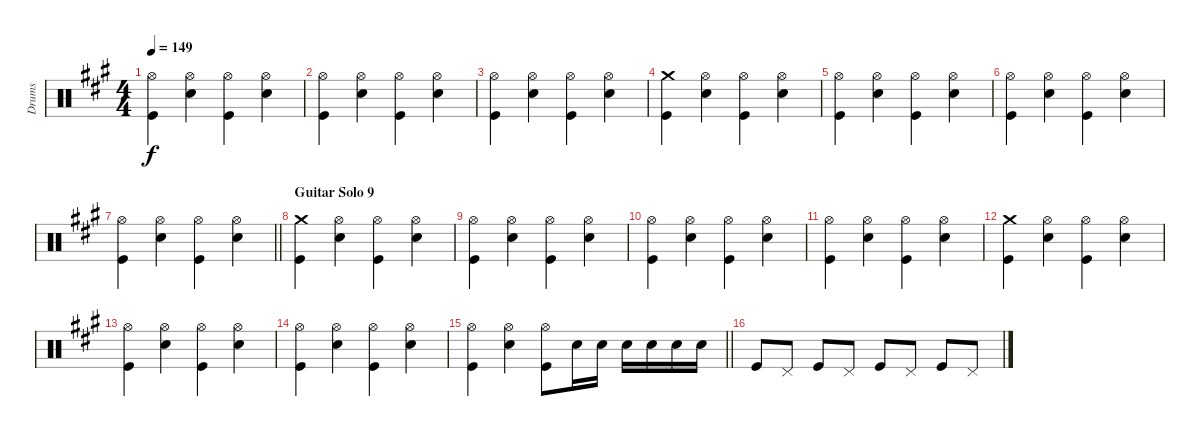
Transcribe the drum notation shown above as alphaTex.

\track ("Drums" "Drums") {instrument percussion}
\staff {score}
\articulation defaults
\ts (4 4)
\tempo 149
\clef neutral
\ks f#minor
("Hi-Hat (open)" "Kick (hit)").4{dy f} ("Hi-Hat (open)" "Snare (hit) 2").4 ("Hi-Hat (open)" "Kick (hit)").4 ("Hi-Hat (open)" "Snare (hit) 2").4 |
("Hi-Hat (open)" "Kick (hit)").4 ("Hi-Hat (open)" "Snare (hit) 2").4 ("Hi-Hat (open)" "Kick (hit)").4 ("Hi-Hat (open)" "Snare (hit) 2").4 |
("Hi-Hat (open)" "Kick (hit)").4 ("Hi-Hat (open)" "Snare (hit) 2").4 ("Hi-Hat (open)" "Kick (hit)").4 ("Hi-Hat (open)" "Snare (hit) 2").4 |
("Crash medium (hit)" "Kick (hit)").4 ("Hi-Hat (open)" "Snare (hit) 2").4 ("Hi-Hat (open)" "Kick (hit)").4 ("Hi-Hat (open)" "Snare (hit) 2").4 |
("Hi-Hat (open)" "Kick (hit)").4 ("Hi-Hat (open)" "Snare (hit) 2").4 ("Hi-Hat (open)" "Kick (hit)").4 ("Hi-Hat (open)" "Snare (hit) 2").4 |
("Hi-Hat (open)" "Kick (hit)").4 ("Hi-Hat (open)" "Snare (hit) 2").4 ("Hi-Hat (open)" "Kick (hit)").4 ("Hi-Hat (open)" "Snare (hit) 2").4 |
\barLineRight lightlight
("Hi-Hat (open)" "Kick (hit)").4 ("Hi-Hat (open)" "Snare (hit) 2").4 ("Hi-Hat (open)" "Kick (hit)").4 ("Hi-Hat (open)" "Snare (hit) 2").4 |
\section ("" "Guitar Solo 9")
("Crash medium (hit)" "Kick (hit)").4 ("Hi-Hat (open)" "Snare (hit) 2").4 ("Hi-Hat (open)" "Kick (hit)").4 ("Hi-Hat (open)" "Snare (hit) 2").4 |
("Hi-Hat (open)" "Kick (hit)").4 ("Hi-Hat (open)" "Snare (hit) 2").4 ("Hi-Hat (open)" "Kick (hit)").4 ("Hi-Hat (open)" "Snare (hit) 2").4 |
("Hi-Hat (open)" "Kick (hit)").4 ("Hi-Hat (open)" "Snare (hit) 2").4 ("Hi-Hat (open)" "Kick (hit)").4 ("Hi-Hat (open)" "Snare (hit) 2").4 |
("Hi-Hat (open)" "Kick (hit)").4 ("Hi-Hat (open)" "Snare (hit) 2").4 ("Hi-Hat (open)" "Kick (hit)").4 ("Hi-Hat (open)" "Snare (hit) 2").4 |
("Crash medium (hit)" "Kick (hit)").4 ("Hi-Hat (open)" "Snare (hit) 2").4 ("Hi-Hat (open)" "Kick (hit)").4 ("Hi-Hat (open)" "Snare (hit) 2").4 |
("Hi-Hat (open)" "Kick (hit)").4 ("Hi-Hat (open)" "Snare (hit) 2").4 ("Hi-Hat (open)" "Kick (hit)").4 ("Hi-Hat (open)" "Snare (hit) 2").4 |
("Hi-Hat (open)" "Kick (hit)").4 ("Hi-Hat (open)" "Snare (hit) 2").4 ("Hi-Hat (open)" "Kick (hit)").4 ("Hi-Hat (open)" "Snare (hit) 2").4 |
\barLineRight lightlight
("Hi-Hat (open)" "Kick (hit)").4 ("Hi-Hat (open)" "Snare (hit) 2").4 ("Hi-Hat (open)" "Kick (hit)").8 "Snare (hit) 2".16 "Snare (hit) 2".16 "Snare (hit) 2".16 "Snare (hit) 2".16 "Snare (hit) 2".16 "Snare (hit) 2".16 |
"Kick (hit)".8 "Pedal Hi-Hat (hit)".8 "Kick (hit)".8 "Pedal Hi-Hat (hit)".8 "Kick (hit)".8 "Pedal Hi-Hat (hit)".8 "Kick (hit)".8 "Pedal Hi-Hat (hit)".8
